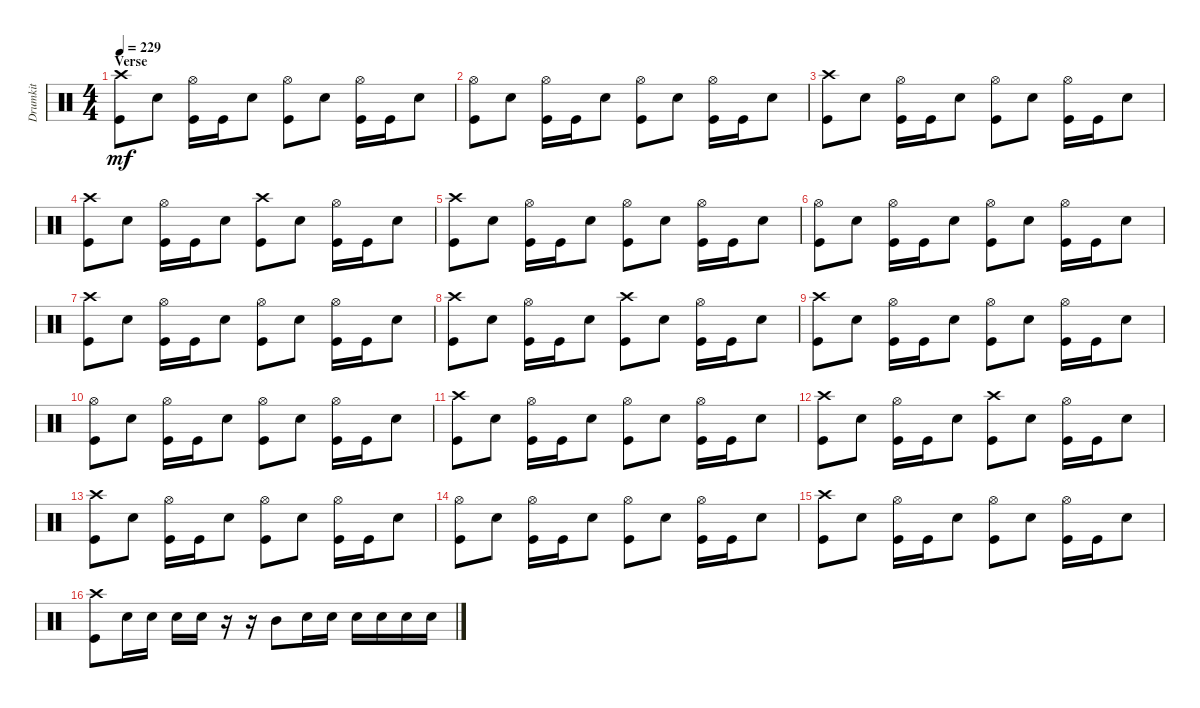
\track ("Drumkit" "Drumkit") {instrument percussion}
\staff {score}
\articulation defaults
\ts (4 4)
\section ("" "Verse")
\tempo 229
\clef neutral
\ks c
("Kick (hit)" "Crash high (hit)").8{dy mf} "Snare (hit) 2".8 ("Kick (hit)" "Hi-Hat (open)").16 "Kick (hit)".16 "Snare (hit) 2".8 ("Kick (hit)" "Hi-Hat (open)").8 "Snare (hit) 2".8 ("Kick (hit)" "Hi-Hat (open)").16 "Kick (hit)".16 "Snare (hit) 2".8 |
("Kick (hit)" "Hi-Hat (open)").8 "Snare (hit) 2".8 ("Kick (hit)" "Hi-Hat (open)").16 "Kick (hit)".16 "Snare (hit) 2".8 ("Kick (hit)" "Hi-Hat (open)").8 "Snare (hit) 2".8 ("Kick (hit)" "Hi-Hat (open)").16 "Kick (hit)".16 "Snare (hit) 2".8 |
("Kick (hit)" "Crash high (hit)").8 "Snare (hit) 2".8 ("Kick (hit)" "Hi-Hat (open)").16 "Kick (hit)".16 "Snare (hit) 2".8 ("Kick (hit)" "Hi-Hat (open)").8 "Snare (hit) 2".8 ("Kick (hit)" "Hi-Hat (open)").16 "Kick (hit)".16 "Snare (hit) 2".8 |
("Kick (hit)" "Crash high (hit)").8 "Snare (hit) 2".8 ("Kick (hit)" "Hi-Hat (open)").16 "Kick (hit)".16 "Snare (hit) 2".8 ("Kick (hit)" "Crash high (hit)").8 "Snare (hit) 2".8 ("Kick (hit)" "Hi-Hat (open)").16 "Kick (hit)".16 "Snare (hit) 2".8 |
("Kick (hit)" "Crash high (hit)").8 "Snare (hit) 2".8 ("Kick (hit)" "Hi-Hat (open)").16 "Kick (hit)".16 "Snare (hit) 2".8 ("Kick (hit)" "Hi-Hat (open)").8 "Snare (hit) 2".8 ("Kick (hit)" "Hi-Hat (open)").16 "Kick (hit)".16 "Snare (hit) 2".8 |
("Kick (hit)" "Hi-Hat (open)").8 "Snare (hit) 2".8 ("Kick (hit)" "Hi-Hat (open)").16 "Kick (hit)".16 "Snare (hit) 2".8 ("Kick (hit)" "Hi-Hat (open)").8 "Snare (hit) 2".8 ("Kick (hit)" "Hi-Hat (open)").16 "Kick (hit)".16 "Snare (hit) 2".8 |
("Kick (hit)" "Crash high (hit)").8 "Snare (hit) 2".8 ("Kick (hit)" "Hi-Hat (open)").16 "Kick (hit)".16 "Snare (hit) 2".8 ("Kick (hit)" "Hi-Hat (open)").8 "Snare (hit) 2".8 ("Kick (hit)" "Hi-Hat (open)").16 "Kick (hit)".16 "Snare (hit) 2".8 |
("Kick (hit)" "Crash high (hit)").8 "Snare (hit) 2".8 ("Kick (hit)" "Hi-Hat (open)").16 "Kick (hit)".16 "Snare (hit) 2".8 ("Kick (hit)" "Crash high (hit)").8 "Snare (hit) 2".8 ("Kick (hit)" "Hi-Hat (open)").16 "Kick (hit)".16 "Snare (hit) 2".8 |
("Kick (hit)" "Crash high (hit)").8 "Snare (hit) 2".8 ("Kick (hit)" "Hi-Hat (open)").16 "Kick (hit)".16 "Snare (hit) 2".8 ("Kick (hit)" "Hi-Hat (open)").8 "Snare (hit) 2".8 ("Kick (hit)" "Hi-Hat (open)").16 "Kick (hit)".16 "Snare (hit) 2".8 |
("Kick (hit)" "Hi-Hat (open)").8 "Snare (hit) 2".8 ("Kick (hit)" "Hi-Hat (open)").16 "Kick (hit)".16 "Snare (hit) 2".8 ("Kick (hit)" "Hi-Hat (open)").8 "Snare (hit) 2".8 ("Kick (hit)" "Hi-Hat (open)").16 "Kick (hit)".16 "Snare (hit) 2".8 |
("Kick (hit)" "Crash high (hit)").8 "Snare (hit) 2".8 ("Kick (hit)" "Hi-Hat (open)").16 "Kick (hit)".16 "Snare (hit) 2".8 ("Kick (hit)" "Hi-Hat (open)").8 "Snare (hit) 2".8 ("Kick (hit)" "Hi-Hat (open)").16 "Kick (hit)".16 "Snare (hit) 2".8 |
("Kick (hit)" "Crash high (hit)").8 "Snare (hit) 2".8 ("Kick (hit)" "Hi-Hat (open)").16 "Kick (hit)".16 "Snare (hit) 2".8 ("Kick (hit)" "Crash high (hit)").8 "Snare (hit) 2".8 ("Kick (hit)" "Hi-Hat (open)").16 "Kick (hit)".16 "Snare (hit) 2".8 |
("Kick (hit)" "Crash high (hit)").8 "Snare (hit) 2".8 ("Kick (hit)" "Hi-Hat (open)").16 "Kick (hit)".16 "Snare (hit) 2".8 ("Kick (hit)" "Hi-Hat (open)").8 "Snare (hit) 2".8 ("Kick (hit)" "Hi-Hat (open)").16 "Kick (hit)".16 "Snare (hit) 2".8 |
("Kick (hit)" "Hi-Hat (open)").8 "Snare (hit) 2".8 ("Kick (hit)" "Hi-Hat (open)").16 "Kick (hit)".16 "Snare (hit) 2".8 ("Kick (hit)" "Hi-Hat (open)").8 "Snare (hit) 2".8 ("Kick (hit)" "Hi-Hat (open)").16 "Kick (hit)".16 "Snare (hit) 2".8 |
("Kick (hit)" "Crash high (hit)").8 "Snare (hit) 2".8 ("Kick (hit)" "Hi-Hat (open)").16 "Kick (hit)".16 "Snare (hit) 2".8 ("Kick (hit)" "Hi-Hat (open)").8 "Snare (hit) 2".8 ("Kick (hit)" "Hi-Hat (open)").16 "Kick (hit)".16 "Snare (hit) 2".8 |
("Kick (hit)" "Crash high (hit)").8 "Snare (hit) 2".16 "Snare (hit) 2".16 "Snare (hit) 2".16 "Snare (hit) 2".16 r.16 r.16 "Mid Tom (hit)".8 "Snare (hit) 2".16 "Snare (hit) 2".16 "Snare (hit) 2".16 "Snare (hit) 2".16 "Snare (hit) 2".16 "Snare (hit) 2".16
